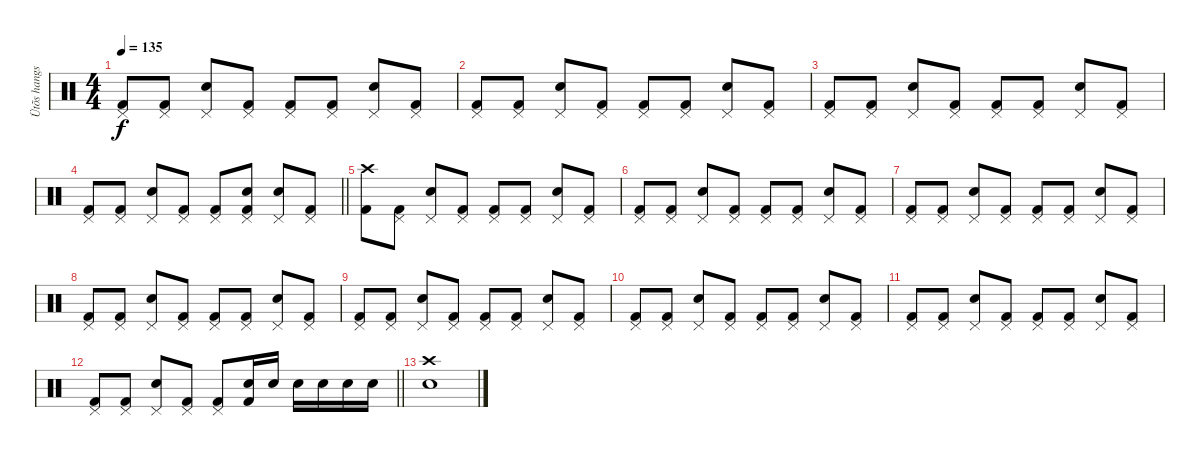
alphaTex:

\track ("Ütõs hangszer" "Ütõs hangs") {instrument percussion}
\staff {score}
\articulation defaults
\ts (4 4)
\tempo 135
\clef neutral
\ks c
("Pedal Hi-Hat (hit)" "Kick (hit) 2").8{dy f} ("Pedal Hi-Hat (hit)" "Kick (hit) 2").8 ("Pedal Hi-Hat (hit)" "Electric Snare (hit)").8 ("Pedal Hi-Hat (hit)" "Kick (hit) 2").8 ("Pedal Hi-Hat (hit)" "Kick (hit) 2").8 ("Pedal Hi-Hat (hit)" "Kick (hit) 2").8 ("Pedal Hi-Hat (hit)" "Electric Snare (hit)").8 ("Pedal Hi-Hat (hit)" "Kick (hit) 2").8 |
("Pedal Hi-Hat (hit)" "Kick (hit) 2").8 ("Pedal Hi-Hat (hit)" "Kick (hit) 2").8 ("Pedal Hi-Hat (hit)" "Electric Snare (hit)").8 ("Pedal Hi-Hat (hit)" "Kick (hit) 2").8 ("Pedal Hi-Hat (hit)" "Kick (hit) 2").8 ("Pedal Hi-Hat (hit)" "Kick (hit) 2").8 ("Pedal Hi-Hat (hit)" "Electric Snare (hit)").8 ("Pedal Hi-Hat (hit)" "Kick (hit) 2").8 |
("Pedal Hi-Hat (hit)" "Kick (hit) 2").8 ("Pedal Hi-Hat (hit)" "Kick (hit) 2").8 ("Pedal Hi-Hat (hit)" "Electric Snare (hit)").8 ("Pedal Hi-Hat (hit)" "Kick (hit) 2").8 ("Pedal Hi-Hat (hit)" "Kick (hit) 2").8 ("Pedal Hi-Hat (hit)" "Kick (hit) 2").8 ("Pedal Hi-Hat (hit)" "Electric Snare (hit)").8 ("Pedal Hi-Hat (hit)" "Kick (hit) 2").8 |
\barLineRight lightlight
("Pedal Hi-Hat (hit)" "Kick (hit) 2").8 ("Pedal Hi-Hat (hit)" "Kick (hit) 2").8 ("Pedal Hi-Hat (hit)" "Electric Snare (hit)").8 ("Pedal Hi-Hat (hit)" "Kick (hit) 2").8 ("Pedal Hi-Hat (hit)" "Kick (hit) 2").8 ("Pedal Hi-Hat (hit)" "Electric Snare (hit)" "Kick (hit) 2").8 ("Pedal Hi-Hat (hit)" "Electric Snare (hit)").8 ("Pedal Hi-Hat (hit)" "Kick (hit) 2").8 |
("Crash high (hit)" "Kick (hit) 2").8 ("Pedal Hi-Hat (hit)" "Kick (hit) 2").8 ("Pedal Hi-Hat (hit)" "Electric Snare (hit)").8 ("Pedal Hi-Hat (hit)" "Kick (hit) 2").8 ("Pedal Hi-Hat (hit)" "Kick (hit) 2").8 ("Pedal Hi-Hat (hit)" "Kick (hit) 2").8 ("Pedal Hi-Hat (hit)" "Electric Snare (hit)").8 ("Pedal Hi-Hat (hit)" "Kick (hit) 2").8 |
("Pedal Hi-Hat (hit)" "Kick (hit) 2").8 ("Pedal Hi-Hat (hit)" "Kick (hit) 2").8 ("Pedal Hi-Hat (hit)" "Electric Snare (hit)").8 ("Pedal Hi-Hat (hit)" "Kick (hit) 2").8 ("Pedal Hi-Hat (hit)" "Kick (hit) 2").8 ("Pedal Hi-Hat (hit)" "Kick (hit) 2").8 ("Pedal Hi-Hat (hit)" "Electric Snare (hit)").8 ("Pedal Hi-Hat (hit)" "Kick (hit) 2").8 |
("Pedal Hi-Hat (hit)" "Kick (hit) 2").8 ("Pedal Hi-Hat (hit)" "Kick (hit) 2").8 ("Pedal Hi-Hat (hit)" "Electric Snare (hit)").8 ("Pedal Hi-Hat (hit)" "Kick (hit) 2").8 ("Pedal Hi-Hat (hit)" "Kick (hit) 2").8 ("Pedal Hi-Hat (hit)" "Kick (hit) 2").8 ("Pedal Hi-Hat (hit)" "Electric Snare (hit)").8 ("Pedal Hi-Hat (hit)" "Kick (hit) 2").8 |
("Pedal Hi-Hat (hit)" "Kick (hit) 2").8 ("Pedal Hi-Hat (hit)" "Kick (hit) 2").8 ("Pedal Hi-Hat (hit)" "Electric Snare (hit)").8 ("Pedal Hi-Hat (hit)" "Kick (hit) 2").8 ("Pedal Hi-Hat (hit)" "Kick (hit) 2").8 ("Pedal Hi-Hat (hit)" "Kick (hit) 2").8 ("Pedal Hi-Hat (hit)" "Electric Snare (hit)").8 ("Pedal Hi-Hat (hit)" "Kick (hit) 2").8 |
("Pedal Hi-Hat (hit)" "Kick (hit) 2").8 ("Pedal Hi-Hat (hit)" "Kick (hit) 2").8 ("Pedal Hi-Hat (hit)" "Electric Snare (hit)").8 ("Pedal Hi-Hat (hit)" "Kick (hit) 2").8 ("Pedal Hi-Hat (hit)" "Kick (hit) 2").8 ("Pedal Hi-Hat (hit)" "Kick (hit) 2").8 ("Pedal Hi-Hat (hit)" "Electric Snare (hit)").8 ("Pedal Hi-Hat (hit)" "Kick (hit) 2").8 |
("Pedal Hi-Hat (hit)" "Kick (hit) 2").8 ("Pedal Hi-Hat (hit)" "Kick (hit) 2").8 ("Pedal Hi-Hat (hit)" "Electric Snare (hit)").8 ("Pedal Hi-Hat (hit)" "Kick (hit) 2").8 ("Pedal Hi-Hat (hit)" "Kick (hit) 2").8 ("Pedal Hi-Hat (hit)" "Kick (hit) 2").8 ("Pedal Hi-Hat (hit)" "Electric Snare (hit)").8 ("Pedal Hi-Hat (hit)" "Kick (hit) 2").8 |
("Pedal Hi-Hat (hit)" "Kick (hit) 2").8 ("Pedal Hi-Hat (hit)" "Kick (hit) 2").8 ("Pedal Hi-Hat (hit)" "Electric Snare (hit)").8 ("Pedal Hi-Hat (hit)" "Kick (hit) 2").8 ("Pedal Hi-Hat (hit)" "Kick (hit) 2").8 ("Pedal Hi-Hat (hit)" "Kick (hit) 2").8 ("Pedal Hi-Hat (hit)" "Electric Snare (hit)").8 ("Pedal Hi-Hat (hit)" "Kick (hit) 2").8 |
\barLineRight lightlight
("Pedal Hi-Hat (hit)" "Kick (hit) 2").8 ("Pedal Hi-Hat (hit)" "Kick (hit) 2").8 ("Pedal Hi-Hat (hit)" "Electric Snare (hit)").8 ("Pedal Hi-Hat (hit)" "Kick (hit) 2").8 ("Pedal Hi-Hat (hit)" "Kick (hit) 2").8 ("Electric Snare (hit)" "Kick (hit) 2").16 "Electric Snare (hit)".16 "Electric Snare (hit)".16 "Electric Snare (hit)".16 "Electric Snare (hit)".16 "Electric Snare (hit)".16 |
("Crash high (hit)" "Electric Snare (hit)").1
